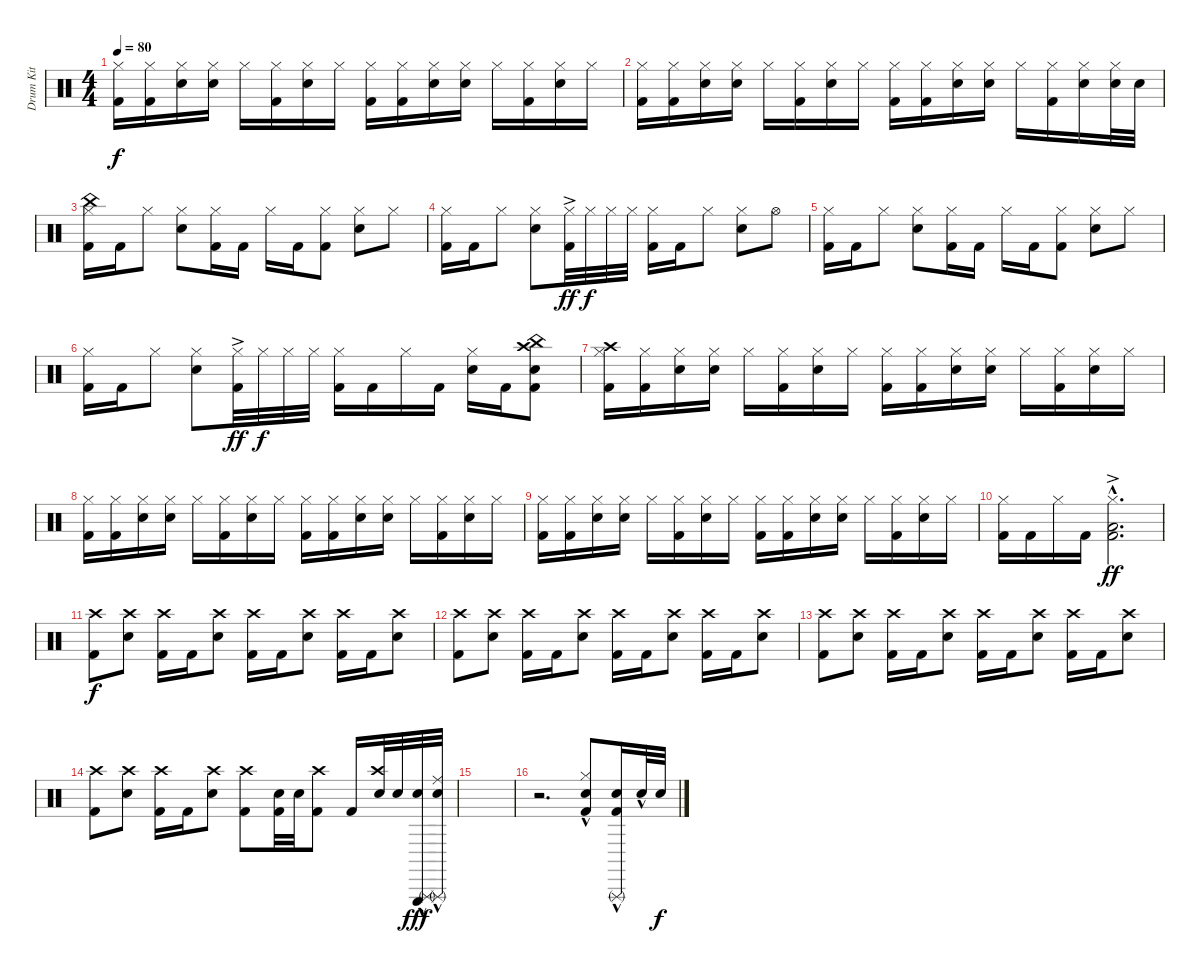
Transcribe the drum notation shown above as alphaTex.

\track ("Drum Kit" "Drum Kit") {instrument percussion}
\staff {score}
\articulation defaults
\ts (4 4)
\tempo 80
\clef neutral
\ks c
("Hi-Hat (closed)" "Kick (hit) 2").16{dy f} ("Hi-Hat (closed)" "Kick (hit) 2").16 ("Hi-Hat (closed)" "Snare (hit) 2").16 ("Hi-Hat (closed)" "Snare (hit) 2").16 "Hi-Hat (closed)".16 ("Hi-Hat (closed)" "Kick (hit) 2").16 ("Hi-Hat (closed)" "Snare (hit) 2").16 "Hi-Hat (closed)".16 ("Hi-Hat (closed)" "Kick (hit) 2").16 ("Hi-Hat (closed)" "Kick (hit) 2").16 ("Hi-Hat (closed)" "Snare (hit) 2").16 ("Hi-Hat (closed)" "Snare (hit) 2").16 "Hi-Hat (closed)".16 ("Hi-Hat (closed)" "Kick (hit) 2").16 ("Hi-Hat (closed)" "Snare (hit) 2").16 "Hi-Hat (closed)".16 |
("Hi-Hat (closed)" "Kick (hit) 2").16 ("Hi-Hat (closed)" "Kick (hit) 2").16 ("Hi-Hat (closed)" "Snare (hit) 2").16 ("Hi-Hat (closed)" "Snare (hit) 2").16 "Hi-Hat (closed)".16 ("Hi-Hat (closed)" "Kick (hit) 2").16 ("Hi-Hat (closed)" "Snare (hit) 2").16 "Hi-Hat (closed)".16 ("Hi-Hat (closed)" "Kick (hit) 2").16 ("Hi-Hat (closed)" "Kick (hit) 2").16 ("Hi-Hat (closed)" "Snare (hit) 2").16 ("Hi-Hat (closed)" "Snare (hit) 2").16 "Hi-Hat (closed)".16 ("Hi-Hat (closed)" "Kick (hit) 2").16 ("Hi-Hat (closed)" "Snare (hit) 2").16 ("Hi-Hat (closed)" "Snare (hit) 2").32 "Snare (hit) 2".32 |
("China (hit)" "Hi-Hat (closed)" "Kick (hit) 2").16 "Kick (hit) 2".16 "Hi-Hat (closed)".8 ("Hi-Hat (closed)" "Snare (hit) 2").8 ("Hi-Hat (closed)" "Kick (hit) 2").16 "Kick (hit) 2".16 "Hi-Hat (closed)".16 "Kick (hit) 2".16 ("Hi-Hat (closed)" "Kick (hit) 2").8 ("Hi-Hat (closed)" "Snare (hit) 2").8 "Hi-Hat (closed)".8 |
("Hi-Hat (closed)" "Kick (hit) 2").16 "Kick (hit) 2".16 "Hi-Hat (closed)".8 ("Hi-Hat (closed)" "Snare (hit) 2").8 ("Hi-Hat (closed)"{ac} "Kick (hit) 2").32{dy ff} "Hi-Hat (closed)".32{dy f} "Hi-Hat (closed)".32 "Hi-Hat (closed)".32 ("Hi-Hat (closed)" "Kick (hit) 2").16 "Kick (hit) 2".16 "Hi-Hat (closed)".8 ("Hi-Hat (closed)" "Snare (hit) 2").8 "Hi-Hat (open)".8 |
("Hi-Hat (closed)" "Kick (hit) 2").16 "Kick (hit) 2".16 "Hi-Hat (closed)".8 ("Hi-Hat (closed)" "Snare (hit) 2").8 ("Hi-Hat (closed)" "Kick (hit) 2").16 "Kick (hit) 2".16 "Hi-Hat (closed)".16 "Kick (hit) 2".16 ("Hi-Hat (closed)" "Kick (hit) 2").8 ("Hi-Hat (closed)" "Snare (hit) 2").8 "Hi-Hat (closed)".8 |
("Hi-Hat (closed)" "Kick (hit) 2").16 "Kick (hit) 2".16 "Hi-Hat (closed)".8 ("Hi-Hat (closed)" "Snare (hit) 2").8 ("Hi-Hat (closed)"{ac} "Kick (hit) 2").32{dy ff} "Hi-Hat (closed)".32{dy f} "Hi-Hat (closed)".32 "Hi-Hat (closed)".32 ("Hi-Hat (closed)" "Kick (hit) 2").16 "Kick (hit) 2".16 "Hi-Hat (closed)".16 "Kick (hit) 2".16 ("Hi-Hat (closed)" "Snare (hit) 2").16 "Kick (hit) 2".16 ("Snare (hit) 2" "Crash high (hit)" "China (hit)" "Kick (hit) 2").8 |
("Crash high (hit)" "Hi-Hat (closed)" "Kick (hit) 2").16 ("Hi-Hat (closed)" "Kick (hit) 2").16 ("Hi-Hat (closed)" "Snare (hit) 2").16 ("Hi-Hat (closed)" "Snare (hit) 2").16 "Hi-Hat (closed)".16 ("Hi-Hat (closed)" "Kick (hit) 2").16 ("Hi-Hat (closed)" "Snare (hit) 2").16 "Hi-Hat (closed)".16 ("Hi-Hat (closed)" "Kick (hit) 2").16 ("Hi-Hat (closed)" "Kick (hit) 2").16 ("Hi-Hat (closed)" "Snare (hit) 2").16 ("Hi-Hat (closed)" "Snare (hit) 2").16 "Hi-Hat (closed)".16 ("Hi-Hat (closed)" "Kick (hit) 2").16 ("Hi-Hat (closed)" "Snare (hit) 2").16 "Hi-Hat (closed)".16 |
("Hi-Hat (closed)" "Kick (hit) 2").16 ("Hi-Hat (closed)" "Kick (hit) 2").16 ("Hi-Hat (closed)" "Snare (hit) 2").16 ("Hi-Hat (closed)" "Snare (hit) 2").16 "Hi-Hat (closed)".16 ("Hi-Hat (closed)" "Kick (hit) 2").16 ("Hi-Hat (closed)" "Snare (hit) 2").16 "Hi-Hat (closed)".16 ("Hi-Hat (closed)" "Kick (hit) 2").16 ("Hi-Hat (closed)" "Kick (hit) 2").16 ("Hi-Hat (closed)" "Snare (hit) 2").16 ("Hi-Hat (closed)" "Snare (hit) 2").16 "Hi-Hat (closed)".16 ("Hi-Hat (closed)" "Kick (hit) 2").16 ("Hi-Hat (closed)" "Snare (hit) 2").16 "Hi-Hat (closed)".16 |
("Hi-Hat (closed)" "Kick (hit) 2").16 ("Hi-Hat (closed)" "Kick (hit) 2").16 ("Hi-Hat (closed)" "Snare (hit) 2").16 ("Hi-Hat (closed)" "Snare (hit) 2").16 "Hi-Hat (closed)".16 ("Hi-Hat (closed)" "Kick (hit) 2").16 ("Hi-Hat (closed)" "Snare (hit) 2").16 "Hi-Hat (closed)".16 ("Hi-Hat (closed)" "Kick (hit) 2").16 ("Hi-Hat (closed)" "Kick (hit) 2").16 ("Hi-Hat (closed)" "Snare (hit) 2").16 ("Hi-Hat (closed)" "Snare (hit) 2").16 "Hi-Hat (closed)".16 ("Hi-Hat (closed)" "Kick (hit) 2").16 ("Hi-Hat (closed)" "Snare (hit) 2").16 "Hi-Hat (closed)".16 |
("Hi-Hat (closed)" "Kick (hit) 2").16 "Kick (hit) 2".16 "Hi-Hat (closed)".16 "Kick (hit) 2".16 ("Hi-Hat (closed)"{hac} "Kick (hit) 2"{ac} "Low Floor Tom (hit)"{ac}).2{d dy ff} |
("Crash high (hit)" "Kick (hit) 2").8{dy f} ("Crash high (hit)" "Snare (hit) 2").8 ("Crash high (hit)" "Kick (hit) 2").16 "Kick (hit) 2".16 ("Crash high (hit)" "Snare (hit) 2").8 ("Crash high (hit)" "Kick (hit) 2").16 "Kick (hit) 2".16 ("Crash high (hit)" "Snare (hit) 2").8 ("Crash high (hit)" "Kick (hit) 2").16 "Kick (hit) 2".16 ("Crash high (hit)" "Snare (hit) 2").8 |
("Crash high (hit)" "Kick (hit) 2").8 ("Crash high (hit)" "Snare (hit) 2").8 ("Crash high (hit)" "Kick (hit) 2").16 "Kick (hit) 2".16 ("Crash high (hit)" "Snare (hit) 2").8 ("Crash high (hit)" "Kick (hit) 2").16 "Kick (hit) 2".16 ("Crash high (hit)" "Snare (hit) 2").8 ("Crash high (hit)" "Kick (hit) 2").16 "Kick (hit) 2".16 ("Crash high (hit)" "Snare (hit) 2").8 |
("Crash high (hit)" "Kick (hit) 2").8 ("Crash high (hit)" "Snare (hit) 2").8 ("Crash high (hit)" "Kick (hit) 2").16 "Kick (hit) 2".16 ("Crash high (hit)" "Snare (hit) 2").8 ("Crash high (hit)" "Kick (hit) 2").16 "Kick (hit) 2".16 ("Crash high (hit)" "Snare (hit) 2").8 ("Crash high (hit)" "Kick (hit) 2").16 "Kick (hit) 2".16 ("Crash high (hit)" "Snare (hit) 2").8 |
("Crash high (hit)" "Kick (hit) 2").8 ("Crash high (hit)" "Snare (hit) 2").8 ("Crash high (hit)" "Kick (hit) 2").16 "Kick (hit) 2".16 ("Crash high (hit)" "Snare (hit) 2").8 ("Crash high (hit)" "Kick (hit) 2").8 ("Snare (hit) 2" "Kick (hit) 2").32 "Snare (hit) 2".32 ("Crash high (hit)" "Kick (hit) 2").8 "Kick (hit) 2".16 ("Snare (hit) 2" "Crash high (hit)").32 "Snare (hit) 2".32 ("Snare (hit) 2" "Triangle (rnute)"{hac} "Triangle (hit)").32{dy fff} ("Snare (hit) 2" "Ride (middle)"{hac} "Triangle (rnute)").32 |
|
r.2{d} ("Hi-Hat (closed)" "Snare (hit) 2"{hac} "Kick (hit) 2"{hac}).8 ("Kick (hit) 2" "Snare (hit) 2"{hac} "Triangle (rnute)").16 "Snare (hit) 2"{hac}.32 "Snare (hit) 2".32{dy f}
